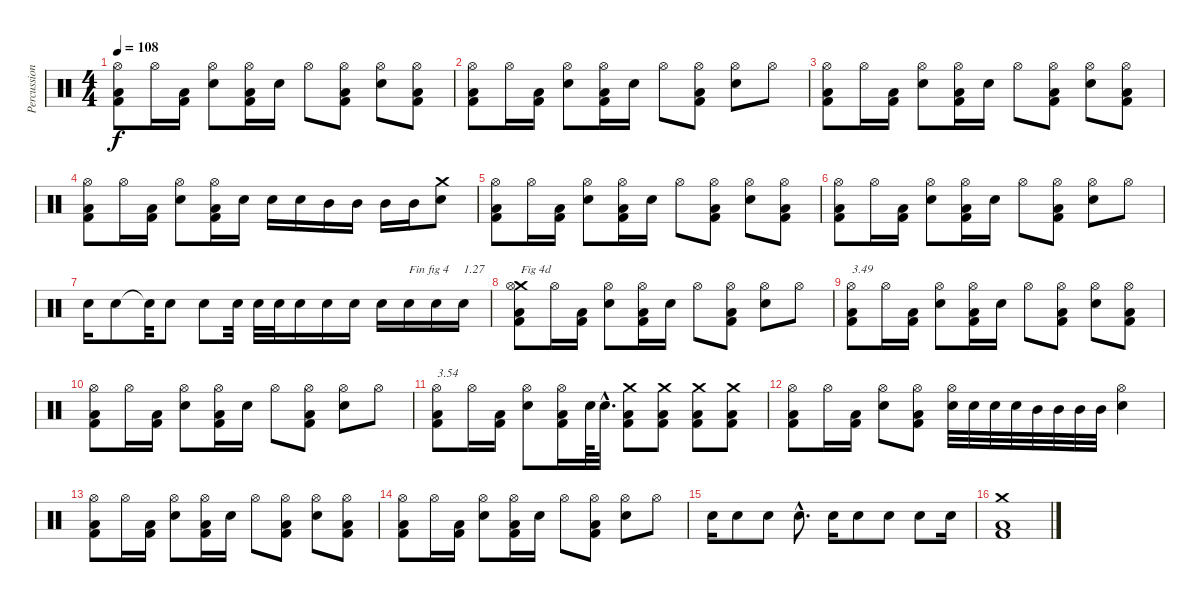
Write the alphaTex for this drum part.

\track ("Percussions" "Percussion") {instrument percussion}
\staff {score}
\articulation defaults
\ts (4 4)
\tempo 108
\clef neutral
\ks c
("Kick (hit) 2" "Low Floor Tom (hit)" "Hi-Hat (open)").8{dy f} "Hi-Hat (open)".16 ("Kick (hit) 2" "Low Floor Tom (hit)").16 ("Snare (hit) 2" "Hi-Hat (open)").8 ("Kick (hit) 2" "Low Floor Tom (hit)" "Hi-Hat (open)").16 "Snare (hit) 2".16 "Hi-Hat (open)".8 ("Kick (hit) 2" "Low Floor Tom (hit)" "Hi-Hat (open)").8 ("Snare (hit) 2" "Hi-Hat (open)").8 ("Kick (hit) 2" "Low Floor Tom (hit)" "Hi-Hat (open)").8 |
("Kick (hit) 2" "Low Floor Tom (hit)" "Hi-Hat (open)").8 "Hi-Hat (open)".16 ("Kick (hit) 2" "Low Floor Tom (hit)").16 ("Snare (hit) 2" "Hi-Hat (open)").8 ("Kick (hit) 2" "Low Floor Tom (hit)" "Hi-Hat (open)").16 "Snare (hit) 2".16 "Hi-Hat (open)".8 ("Kick (hit) 2" "Low Floor Tom (hit)" "Hi-Hat (open)").8 ("Snare (hit) 2" "Hi-Hat (open)").8 "Hi-Hat (open)".8 |
("Kick (hit) 2" "Low Floor Tom (hit)" "Hi-Hat (open)").8 "Hi-Hat (open)".16 ("Kick (hit) 2" "Low Floor Tom (hit)").16 ("Snare (hit) 2" "Hi-Hat (open)").8 ("Kick (hit) 2" "Low Floor Tom (hit)" "Hi-Hat (open)").16 "Snare (hit) 2".16 "Hi-Hat (open)".8 ("Kick (hit) 2" "Low Floor Tom (hit)" "Hi-Hat (open)").8 ("Snare (hit) 2" "Hi-Hat (open)").8 ("Kick (hit) 2" "Low Floor Tom (hit)" "Hi-Hat (open)").8 |
("Kick (hit) 2" "Low Floor Tom (hit)" "Hi-Hat (open)").8 "Hi-Hat (open)".16 ("Kick (hit) 2" "Low Floor Tom (hit)").16 ("Snare (hit) 2" "Hi-Hat (open)").8 ("Kick (hit) 2" "Low Floor Tom (hit)" "Hi-Hat (open)").16 "Snare (hit) 2".16 "Snare (hit) 2".16 "Snare (hit) 2".16 "Mid Tom (hit)".16 "Mid Tom (hit)".16 "Mid Tom (hit)".16 "Mid Tom (hit)".16 ("Snare (hit) 2" "Crash medium (hit)").8 |
("Kick (hit) 2" "Low Floor Tom (hit)" "Hi-Hat (open)").8 "Hi-Hat (open)".16 ("Kick (hit) 2" "Low Floor Tom (hit)").16 ("Snare (hit) 2" "Hi-Hat (open)").8 ("Kick (hit) 2" "Low Floor Tom (hit)" "Hi-Hat (open)").16 "Snare (hit) 2".16 "Hi-Hat (open)".8 ("Kick (hit) 2" "Low Floor Tom (hit)" "Hi-Hat (open)").8 ("Snare (hit) 2" "Hi-Hat (open)").8 ("Kick (hit) 2" "Low Floor Tom (hit)" "Hi-Hat (open)").8 |
("Kick (hit) 2" "Low Floor Tom (hit)" "Hi-Hat (open)").8 "Hi-Hat (open)".16 ("Kick (hit) 2" "Low Floor Tom (hit)").16 ("Snare (hit) 2" "Hi-Hat (open)").8 ("Kick (hit) 2" "Low Floor Tom (hit)" "Hi-Hat (open)").16 "Snare (hit) 2".16 "Hi-Hat (open)".8 ("Kick (hit) 2" "Low Floor Tom (hit)" "Hi-Hat (open)").8 ("Snare (hit) 2" "Hi-Hat (open)").8 "Hi-Hat (open)".8 |
"Snare (hit) 2".16 "Snare (hit) 2".8 "Snare (hit)"{t}.32 "Snare (hit) 2".8 "Snare (hit) 2".8 "Snare (hit) 2".32 "Snare (hit) 2".32 "Snare (hit) 2".32 "Snare (hit) 2".16 "Snare (hit) 2".16 "Snare (hit) 2".16 "Snare (hit) 2".16 "Snare (hit) 2".16{txt "Fin fig 4"} "Snare (hit) 2".16 "Snare (hit) 2".16{txt "1.27"} |
("Kick (hit) 2" "Low Floor Tom (hit)" "Crash medium (hit)" "Hi-Hat (open)").8{txt "Fig 4d"} "Hi-Hat (open)".16 ("Kick (hit) 2" "Low Floor Tom (hit)").16 ("Snare (hit) 2" "Hi-Hat (open)").8 ("Kick (hit) 2" "Low Floor Tom (hit)" "Hi-Hat (open)").16 "Snare (hit) 2".16 "Hi-Hat (open)".8 ("Kick (hit) 2" "Low Floor Tom (hit)" "Hi-Hat (open)").8 ("Snare (hit) 2" "Hi-Hat (open)").8 "Hi-Hat (open)".8 |
("Kick (hit) 2" "Low Floor Tom (hit)" "Hi-Hat (open)").8{txt "3.49"} "Hi-Hat (open)".16 ("Kick (hit) 2" "Low Floor Tom (hit)").16 ("Snare (hit) 2" "Hi-Hat (open)").8 ("Kick (hit) 2" "Low Floor Tom (hit)" "Hi-Hat (open)").16 "Snare (hit) 2".16 "Hi-Hat (open)".8 ("Kick (hit) 2" "Low Floor Tom (hit)" "Hi-Hat (open)").8 ("Snare (hit) 2" "Hi-Hat (open)").8 ("Kick (hit) 2" "Low Floor Tom (hit)" "Hi-Hat (open)").8 |
("Kick (hit) 2" "Low Floor Tom (hit)" "Hi-Hat (open)").8 "Hi-Hat (open)".16 ("Kick (hit) 2" "Low Floor Tom (hit)").16 ("Snare (hit) 2" "Hi-Hat (open)").8 ("Kick (hit) 2" "Low Floor Tom (hit)" "Hi-Hat (open)").16 "Snare (hit) 2".16 "Hi-Hat (open)".8 ("Kick (hit) 2" "Low Floor Tom (hit)" "Hi-Hat (open)").8 ("Snare (hit) 2" "Hi-Hat (open)").8 "Hi-Hat (open)".8 |
("Kick (hit) 2" "Low Floor Tom (hit)" "Hi-Hat (open)").8{txt "3.54"} "Hi-Hat (open)".16 ("Kick (hit) 2" "Low Floor Tom (hit)").16 ("Snare (hit) 2" "Hi-Hat (open)").8 ("Kick (hit) 2" "Low Floor Tom (hit)" "Hi-Hat (open)").16 "Snare (hit) 2".64 "Snare (hit) 2"{hac}.32{d} ("Kick (hit) 2" "Low Floor Tom (hit)" "Crash medium (hit)").8 ("Kick (hit) 2" "Low Floor Tom (hit)" "Crash medium (hit)").8 ("Kick (hit) 2" "Low Floor Tom (hit)" "Crash medium (hit)").8 ("Kick (hit) 2" "Low Floor Tom (hit)" "Crash medium (hit)").8 |
("Kick (hit) 2" "Low Floor Tom (hit)" "Hi-Hat (open)").8 "Hi-Hat (open)".16 ("Kick (hit) 2" "Low Floor Tom (hit)").16 ("Snare (hit) 2" "Hi-Hat (open)").8 ("Kick (hit) 2" "Low Floor Tom (hit)" "Hi-Hat (open)").8 ("Snare (hit) 2" "Hi-Hat (open)").32 "Snare (hit) 2".32 "Snare (hit) 2".32 "Snare (hit) 2".32 "Mid Tom (hit)".32 "Mid Tom (hit)".32 "Mid Tom (hit)".32 "Mid Tom (hit)".32 ("Snare (hit) 2" "Hi-Hat (open)").4 |
("Kick (hit) 2" "Low Floor Tom (hit)" "Hi-Hat (open)").8 "Hi-Hat (open)".16 ("Kick (hit) 2" "Low Floor Tom (hit)").16 ("Snare (hit) 2" "Hi-Hat (open)").8 ("Kick (hit) 2" "Low Floor Tom (hit)" "Hi-Hat (open)").16 "Snare (hit) 2".16 "Hi-Hat (open)".8 ("Kick (hit) 2" "Low Floor Tom (hit)" "Hi-Hat (open)").8 ("Snare (hit) 2" "Hi-Hat (open)").8 ("Kick (hit) 2" "Low Floor Tom (hit)" "Hi-Hat (open)").8 |
("Kick (hit) 2" "Low Floor Tom (hit)" "Hi-Hat (open)").8 "Hi-Hat (open)".16 ("Kick (hit) 2" "Low Floor Tom (hit)").16 ("Snare (hit) 2" "Hi-Hat (open)").8 ("Kick (hit) 2" "Low Floor Tom (hit)" "Hi-Hat (open)").16 "Snare (hit) 2".16 "Hi-Hat (open)".8 ("Kick (hit) 2" "Low Floor Tom (hit)" "Hi-Hat (open)").8 ("Snare (hit) 2" "Hi-Hat (open)").8 "Hi-Hat (open)".8 |
"Snare (hit) 2".16 "Snare (hit) 2".8 "Snare (hit) 2".8 "Snare (hit) 2"{hac}.8{d} "Snare (hit) 2".16 "Snare (hit) 2".8 "Snare (hit) 2".8 "Snare (hit) 2".8 "Snare (hit) 2".16 |
("Kick (hit) 2" "Low Floor Tom (hit)" "Crash medium (hit)").1
